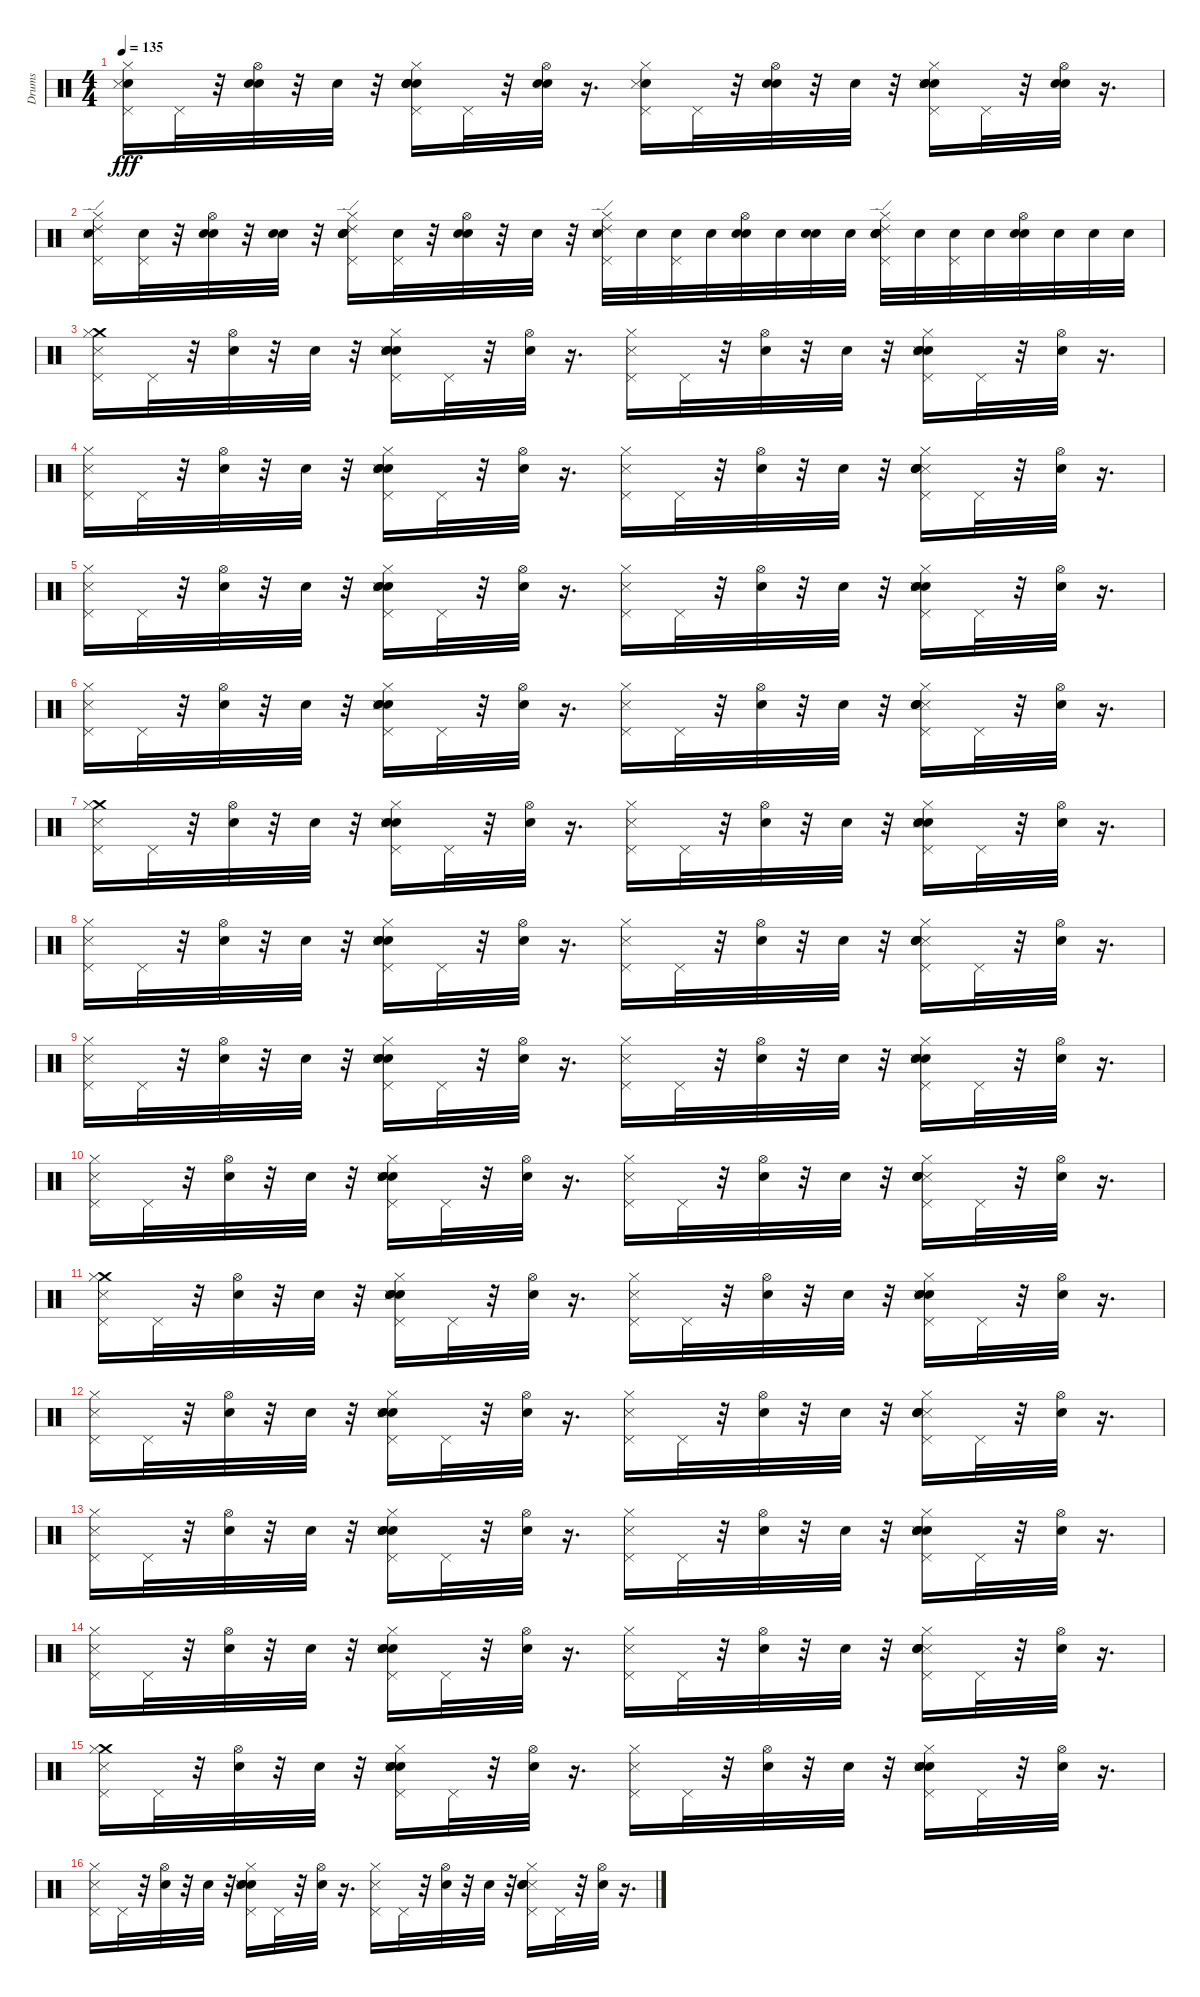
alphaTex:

\track ("Drums" "Drums") {instrument percussion}
\staff {score}
\articulation defaults
\ts (4 4)
\tempo 135
\clef neutral
\ks c
("Snare (hit) 2" "Pedal Hi-Hat (hit)" "Hi-Hat (closed)" "Metronome (hit)").16{dy fff} "Pedal Hi-Hat (hit)".32 r.32 ("Snare (hit) 2" "Hi-Hat (open)" "Snare (hit)").32 r.32 "Snare (hit)".32 r.32 ("Snare (hit) 2" "Snare (hit)" "Pedal Hi-Hat (hit)" "Electric Snare (hit)" "Hi-Hat (closed)" "Hand Clap (hit)").16 "Pedal Hi-Hat (hit)".32 r.32 ("Hi-Hat (open)" "Snare (hit) 2" "Snare (hit)").32 r.16{d} ("Pedal Hi-Hat (hit)" "Snare (hit) 2" "Hi-Hat (closed)" "Metronome (hit)").16 "Pedal Hi-Hat (hit)".32 r.32 ("Hi-Hat (open)" "Snare (hit) 2" "Snare (hit)").32 r.32 "Snare (hit)".32 r.32 ("Snare (hit) 2" "Electric Snare (hit)" "Hi-Hat (closed)" "Hand Clap (hit)" "Pedal Hi-Hat (hit)" "Metronome (hit)").16 "Pedal Hi-Hat (hit)".32 r.32 ("Snare (hit) 2" "Snare (hit)" "Hi-Hat (open)").32 r.16{d} |
("Ride (edge) 2" "Snare (hit) 2" "Pedal Hi-Hat (hit)" "Hi-Hat (closed)" "Metronome (hit)").16 ("Snare (hit) 2" "Pedal Hi-Hat (hit)").32 r.32 ("Snare (hit) 2" "Hi-Hat (open)" "Snare (hit)").32 r.32 ("Snare (hit)" "Snare (hit) 2").32 r.32 ("Ride (edge) 2" "Snare (hit) 2" "Electric Snare (hit)" "Snare (hit)" "Pedal Hi-Hat (hit)" "Hi-Hat (closed)").16 ("Pedal Hi-Hat (hit)" "Snare (hit) 2").32 r.32 ("Hi-Hat (open)" "Snare (hit) 2" "Snare (hit)").32 r.32 "Snare (hit) 2".32 r.32 ("Hi-Hat (closed)" "Ride (edge) 2" "Metronome (hit)" "Pedal Hi-Hat (hit)" "Snare (hit) 2").32 "Snare (hit) 2".32 ("Snare (hit) 2" "Pedal Hi-Hat (hit)").32 "Snare (hit) 2".32 ("Snare (hit)" "Snare (hit) 2" "Hi-Hat (open)").32 "Snare (hit) 2".32 ("Snare (hit)" "Snare (hit) 2").32 "Snare (hit) 2".32 ("Snare (hit) 2" "Ride (edge) 2" "Pedal Hi-Hat (hit)" "Hi-Hat (closed)" "Hand Clap (hit)" "Snare (hit)").32 "Snare (hit) 2".32 ("Snare (hit) 2" "Pedal Hi-Hat (hit)").32 "Snare (hit) 2".32 ("Snare (hit) 2" "Snare (hit)" "Hi-Hat (open)").32 "Snare (hit) 2".32 "Snare (hit) 2".32 "Snare (hit) 2".32 |
("Crash medium (hit)" "Pedal Hi-Hat (hit)" "Hi-Hat (closed)" "Metronome (hit)").16 "Pedal Hi-Hat (hit)".32 r.32 ("Hi-Hat (open)" "Snare (hit)").32 r.32 "Snare (hit)".32 r.32 ("Electric Snare (hit)" "Hand Clap (hit)" "Hi-Hat (closed)" "Snare (hit)" "Metronome (hit)" "Pedal Hi-Hat (hit)").16 "Pedal Hi-Hat (hit)".32 r.32 ("Snare (hit)" "Hi-Hat (open)").32 r.16{d} ("Pedal Hi-Hat (hit)" "Hi-Hat (closed)" "Metronome (hit)").16 "Pedal Hi-Hat (hit)".32 r.32 ("Snare (hit)" "Hi-Hat (open)").32 r.32 "Snare (hit)".32 r.32 ("Hi-Hat (closed)" "Electric Snare (hit)" "Snare (hit)" "Pedal Hi-Hat (hit)" "Metronome (hit)" "Hand Clap (hit)").16 "Pedal Hi-Hat (hit)".32 r.32 ("Snare (hit)" "Hi-Hat (open)").32 r.16{d} |
("Pedal Hi-Hat (hit)" "Hi-Hat (closed)" "Metronome (hit)").16 "Pedal Hi-Hat (hit)".32 r.32 ("Hi-Hat (open)" "Snare (hit)").32 r.32 "Snare (hit)".32 r.32 ("Hand Clap (hit)" "Snare (hit)" "Hi-Hat (closed)" "Pedal Hi-Hat (hit)" "Metronome (hit)" "Electric Snare (hit)").16 "Pedal Hi-Hat (hit)".32 r.32 ("Hi-Hat (open)" "Snare (hit)").32 r.16{d} ("Metronome (hit)" "Pedal Hi-Hat (hit)" "Hi-Hat (closed)").16 "Pedal Hi-Hat (hit)".32 r.32 ("Hi-Hat (open)" "Snare (hit)").32 r.32 "Snare (hit)".32 r.32 ("Metronome (hit)" "Hi-Hat (closed)" "Hand Clap (hit)" "Pedal Hi-Hat (hit)" "Snare (hit)" "Electric Snare (hit)").16 "Pedal Hi-Hat (hit)".32 r.32 ("Hi-Hat (open)" "Snare (hit)").32 r.16{d} |
("Pedal Hi-Hat (hit)" "Hi-Hat (closed)" "Metronome (hit)").16 "Pedal Hi-Hat (hit)".32 r.32 ("Snare (hit)" "Hi-Hat (open)").32 r.32 "Snare (hit)".32 r.32 ("Electric Snare (hit)" "Snare (hit)" "Metronome (hit)" "Hand Clap (hit)" "Pedal Hi-Hat (hit)" "Hi-Hat (closed)").16 "Pedal Hi-Hat (hit)".32 r.32 ("Snare (hit)" "Hi-Hat (open)").32 r.16{d} ("Pedal Hi-Hat (hit)" "Hi-Hat (closed)" "Metronome (hit)").16 "Pedal Hi-Hat (hit)".32 r.32 ("Snare (hit)" "Hi-Hat (open)").32 r.32 "Snare (hit)".32 r.32 ("Hi-Hat (closed)" "Snare (hit)" "Electric Snare (hit)" "Pedal Hi-Hat (hit)" "Metronome (hit)" "Hand Clap (hit)").16 "Pedal Hi-Hat (hit)".32 r.32 ("Hi-Hat (open)" "Snare (hit)").32 r.16{d} |
("Metronome (hit)" "Pedal Hi-Hat (hit)" "Hi-Hat (closed)").16 "Pedal Hi-Hat (hit)".32 r.32 ("Hi-Hat (open)" "Snare (hit)").32 r.32 "Snare (hit)".32 r.32 ("Electric Snare (hit)" "Hand Clap (hit)" "Hi-Hat (closed)" "Snare (hit)" "Metronome (hit)" "Pedal Hi-Hat (hit)").16 "Pedal Hi-Hat (hit)".32 r.32 ("Hi-Hat (open)" "Snare (hit)").32 r.16{d} ("Metronome (hit)" "Pedal Hi-Hat (hit)" "Hi-Hat (closed)").16 "Pedal Hi-Hat (hit)".32 r.32 ("Hi-Hat (open)" "Snare (hit)").32 r.32 "Snare (hit)".32 r.32 ("Metronome (hit)" "Hi-Hat (closed)" "Hand Clap (hit)" "Pedal Hi-Hat (hit)" "Snare (hit)" "Electric Snare (hit)").16 "Pedal Hi-Hat (hit)".32 r.32 ("Hi-Hat (open)" "Snare (hit)").32 r.16{d} |
("Crash medium (hit)" "Pedal Hi-Hat (hit)" "Hi-Hat (closed)" "Metronome (hit)").16 "Pedal Hi-Hat (hit)".32 r.32 ("Hi-Hat (open)" "Snare (hit)").32 r.32 "Snare (hit)".32 r.32 ("Electric Snare (hit)" "Hand Clap (hit)" "Hi-Hat (closed)" "Snare (hit)" "Metronome (hit)" "Pedal Hi-Hat (hit)").16 "Pedal Hi-Hat (hit)".32 r.32 ("Snare (hit)" "Hi-Hat (open)").32 r.16{d} ("Pedal Hi-Hat (hit)" "Hi-Hat (closed)" "Metronome (hit)").16 "Pedal Hi-Hat (hit)".32 r.32 ("Snare (hit)" "Hi-Hat (open)").32 r.32 "Snare (hit)".32 r.32 ("Hi-Hat (closed)" "Electric Snare (hit)" "Snare (hit)" "Pedal Hi-Hat (hit)" "Metronome (hit)" "Hand Clap (hit)").16 "Pedal Hi-Hat (hit)".32 r.32 ("Snare (hit)" "Hi-Hat (open)").32 r.16{d} |
("Pedal Hi-Hat (hit)" "Hi-Hat (closed)" "Metronome (hit)").16 "Pedal Hi-Hat (hit)".32 r.32 ("Hi-Hat (open)" "Snare (hit)").32 r.32 "Snare (hit)".32 r.32 ("Hand Clap (hit)" "Snare (hit)" "Hi-Hat (closed)" "Pedal Hi-Hat (hit)" "Metronome (hit)" "Electric Snare (hit)").16 "Pedal Hi-Hat (hit)".32 r.32 ("Hi-Hat (open)" "Snare (hit)").32 r.16{d} ("Metronome (hit)" "Pedal Hi-Hat (hit)" "Hi-Hat (closed)").16 "Pedal Hi-Hat (hit)".32 r.32 ("Hi-Hat (open)" "Snare (hit)").32 r.32 "Snare (hit)".32 r.32 ("Metronome (hit)" "Hi-Hat (closed)" "Hand Clap (hit)" "Pedal Hi-Hat (hit)" "Snare (hit)" "Electric Snare (hit)").16 "Pedal Hi-Hat (hit)".32 r.32 ("Hi-Hat (open)" "Snare (hit)").32 r.16{d} |
("Pedal Hi-Hat (hit)" "Hi-Hat (closed)" "Metronome (hit)").16 "Pedal Hi-Hat (hit)".32 r.32 ("Snare (hit)" "Hi-Hat (open)").32 r.32 "Snare (hit)".32 r.32 ("Electric Snare (hit)" "Snare (hit)" "Metronome (hit)" "Hand Clap (hit)" "Pedal Hi-Hat (hit)" "Hi-Hat (closed)").16 "Pedal Hi-Hat (hit)".32 r.32 ("Snare (hit)" "Hi-Hat (open)").32 r.16{d} ("Pedal Hi-Hat (hit)" "Hi-Hat (closed)" "Metronome (hit)").16 "Pedal Hi-Hat (hit)".32 r.32 ("Snare (hit)" "Hi-Hat (open)").32 r.32 "Snare (hit)".32 r.32 ("Hi-Hat (closed)" "Snare (hit)" "Electric Snare (hit)" "Pedal Hi-Hat (hit)" "Metronome (hit)" "Hand Clap (hit)").16 "Pedal Hi-Hat (hit)".32 r.32 ("Hi-Hat (open)" "Snare (hit)").32 r.16{d} |
("Metronome (hit)" "Pedal Hi-Hat (hit)" "Hi-Hat (closed)").16 "Pedal Hi-Hat (hit)".32 r.32 ("Hi-Hat (open)" "Snare (hit)").32 r.32 "Snare (hit)".32 r.32 ("Electric Snare (hit)" "Hand Clap (hit)" "Hi-Hat (closed)" "Snare (hit)" "Metronome (hit)" "Pedal Hi-Hat (hit)").16 "Pedal Hi-Hat (hit)".32 r.32 ("Hi-Hat (open)" "Snare (hit)").32 r.16{d} ("Metronome (hit)" "Pedal Hi-Hat (hit)" "Hi-Hat (closed)").16 "Pedal Hi-Hat (hit)".32 r.32 ("Hi-Hat (open)" "Snare (hit)").32 r.32 "Snare (hit)".32 r.32 ("Metronome (hit)" "Hi-Hat (closed)" "Hand Clap (hit)" "Pedal Hi-Hat (hit)" "Snare (hit)" "Electric Snare (hit)").16 "Pedal Hi-Hat (hit)".32 r.32 ("Hi-Hat (open)" "Snare (hit)").32 r.16{d} |
("Crash medium (hit)" "Pedal Hi-Hat (hit)" "Hi-Hat (closed)" "Metronome (hit)").16 "Pedal Hi-Hat (hit)".32 r.32 ("Hi-Hat (open)" "Snare (hit)").32 r.32 "Snare (hit)".32 r.32 ("Electric Snare (hit)" "Hand Clap (hit)" "Hi-Hat (closed)" "Snare (hit)" "Metronome (hit)" "Pedal Hi-Hat (hit)").16 "Pedal Hi-Hat (hit)".32 r.32 ("Snare (hit)" "Hi-Hat (open)").32 r.16{d} ("Pedal Hi-Hat (hit)" "Hi-Hat (closed)" "Metronome (hit)").16 "Pedal Hi-Hat (hit)".32 r.32 ("Snare (hit)" "Hi-Hat (open)").32 r.32 "Snare (hit)".32 r.32 ("Hi-Hat (closed)" "Electric Snare (hit)" "Snare (hit)" "Pedal Hi-Hat (hit)" "Metronome (hit)" "Hand Clap (hit)").16 "Pedal Hi-Hat (hit)".32 r.32 ("Snare (hit)" "Hi-Hat (open)").32 r.16{d} |
("Pedal Hi-Hat (hit)" "Hi-Hat (closed)" "Metronome (hit)").16 "Pedal Hi-Hat (hit)".32 r.32 ("Hi-Hat (open)" "Snare (hit)").32 r.32 "Snare (hit)".32 r.32 ("Hand Clap (hit)" "Snare (hit)" "Hi-Hat (closed)" "Pedal Hi-Hat (hit)" "Metronome (hit)" "Electric Snare (hit)").16 "Pedal Hi-Hat (hit)".32 r.32 ("Hi-Hat (open)" "Snare (hit)").32 r.16{d} ("Metronome (hit)" "Pedal Hi-Hat (hit)" "Hi-Hat (closed)").16 "Pedal Hi-Hat (hit)".32 r.32 ("Hi-Hat (open)" "Snare (hit)").32 r.32 "Snare (hit)".32 r.32 ("Metronome (hit)" "Hi-Hat (closed)" "Hand Clap (hit)" "Pedal Hi-Hat (hit)" "Snare (hit)" "Electric Snare (hit)").16 "Pedal Hi-Hat (hit)".32 r.32 ("Hi-Hat (open)" "Snare (hit)").32 r.16{d} |
("Pedal Hi-Hat (hit)" "Hi-Hat (closed)" "Metronome (hit)").16 "Pedal Hi-Hat (hit)".32 r.32 ("Snare (hit)" "Hi-Hat (open)").32 r.32 "Snare (hit)".32 r.32 ("Electric Snare (hit)" "Snare (hit)" "Metronome (hit)" "Hand Clap (hit)" "Pedal Hi-Hat (hit)" "Hi-Hat (closed)").16 "Pedal Hi-Hat (hit)".32 r.32 ("Snare (hit)" "Hi-Hat (open)").32 r.16{d} ("Pedal Hi-Hat (hit)" "Hi-Hat (closed)" "Metronome (hit)").16 "Pedal Hi-Hat (hit)".32 r.32 ("Snare (hit)" "Hi-Hat (open)").32 r.32 "Snare (hit)".32 r.32 ("Hi-Hat (closed)" "Snare (hit)" "Electric Snare (hit)" "Pedal Hi-Hat (hit)" "Metronome (hit)" "Hand Clap (hit)").16 "Pedal Hi-Hat (hit)".32 r.32 ("Hi-Hat (open)" "Snare (hit)").32 r.16{d} |
("Metronome (hit)" "Pedal Hi-Hat (hit)" "Hi-Hat (closed)").16 "Pedal Hi-Hat (hit)".32 r.32 ("Hi-Hat (open)" "Snare (hit)").32 r.32 "Snare (hit)".32 r.32 ("Electric Snare (hit)" "Hand Clap (hit)" "Hi-Hat (closed)" "Snare (hit)" "Metronome (hit)" "Pedal Hi-Hat (hit)").16 "Pedal Hi-Hat (hit)".32 r.32 ("Hi-Hat (open)" "Snare (hit)").32 r.16{d} ("Metronome (hit)" "Pedal Hi-Hat (hit)" "Hi-Hat (closed)").16 "Pedal Hi-Hat (hit)".32 r.32 ("Hi-Hat (open)" "Snare (hit)").32 r.32 "Snare (hit)".32 r.32 ("Metronome (hit)" "Hi-Hat (closed)" "Hand Clap (hit)" "Pedal Hi-Hat (hit)" "Snare (hit)" "Electric Snare (hit)").16 "Pedal Hi-Hat (hit)".32 r.32 ("Hi-Hat (open)" "Snare (hit)").32 r.16{d} |
("Crash medium (hit)" "Pedal Hi-Hat (hit)" "Hi-Hat (closed)" "Metronome (hit)").16 "Pedal Hi-Hat (hit)".32 r.32 ("Hi-Hat (open)" "Snare (hit)").32 r.32 "Snare (hit)".32 r.32 ("Snare (hit)" "Hand Clap (hit)" "Hi-Hat (closed)" "Electric Snare (hit)" "Metronome (hit)" "Pedal Hi-Hat (hit)").16 "Pedal Hi-Hat (hit)".32 r.32 ("Snare (hit)" "Hi-Hat (open)").32 r.16{d} ("Pedal Hi-Hat (hit)" "Metronome (hit)" "Hi-Hat (closed)").16 "Pedal Hi-Hat (hit)".32 r.32 ("Snare (hit)" "Hi-Hat (open)").32 r.32 "Snare (hit)".32 r.32 ("Pedal Hi-Hat (hit)" "Hi-Hat (closed)" "Electric Snare (hit)" "Snare (hit)" "Hand Clap (hit)" "Metronome (hit)").16 "Pedal Hi-Hat (hit)".32 r.32 ("Hi-Hat (open)" "Snare (hit)").32 r.16{d} |
("Metronome (hit)" "Pedal Hi-Hat (hit)" "Hi-Hat (closed)").16 "Pedal Hi-Hat (hit)".32 r.32 ("Hi-Hat (open)" "Snare (hit)").32 r.32 "Snare (hit)".32 r.32 ("Hand Clap (hit)" "Hi-Hat (closed)" "Metronome (hit)" "Pedal Hi-Hat (hit)" "Snare (hit)" "Electric Snare (hit)").16 "Pedal Hi-Hat (hit)".32 r.32 ("Snare (hit)" "Hi-Hat (open)").32 r.16{d} ("Hi-Hat (closed)" "Pedal Hi-Hat (hit)" "Metronome (hit)").16 "Pedal Hi-Hat (hit)".32 r.32 ("Snare (hit)" "Hi-Hat (open)").32 r.32 "Snare (hit)".32 r.32 ("Metronome (hit)" "Pedal Hi-Hat (hit)" "Hand Clap (hit)" "Hi-Hat (closed)" "Snare (hit)" "Electric Snare (hit)").16 "Pedal Hi-Hat (hit)".32 r.32 ("Snare (hit)" "Hi-Hat (open)").32 r.16{d}
